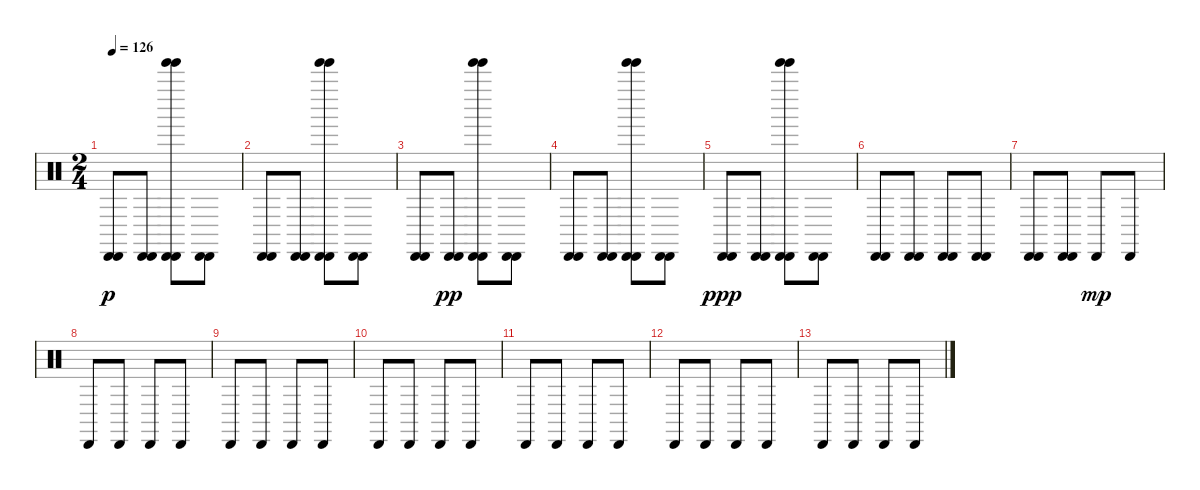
\track "" {instrument percussion}
\staff {score}
\articulation defaults
\ts (2 4)
\tempo 126
\clef neutral
\ks c
("Cabasa (hit)" "Cabasa (hit)").8{dy p} ("Cabasa (hit)" "Cabasa (hit)").8 ("Tinkle Bell (hit)" "Cabasa (hit)" "Tinkle Bell (hit)" "Cabasa (hit)").8 ("Cabasa (hit)" "Cabasa (hit)").8 |
("Cabasa (hit)" "Cabasa (hit)").8 ("Cabasa (hit)" "Cabasa (hit)").8 ("Tinkle Bell (hit)" "Cabasa (hit)" "Tinkle Bell (hit)" "Cabasa (hit)").8 ("Cabasa (hit)" "Cabasa (hit)").8 |
("Cabasa (hit)" "Cabasa (hit)").8 ("Cabasa (hit)" "Cabasa (hit)").8{dy pp} ("Tinkle Bell (hit)" "Cabasa (hit)" "Tinkle Bell (hit)" "Cabasa (hit)").8 ("Cabasa (hit)" "Cabasa (hit)").8 |
("Cabasa (hit)" "Cabasa (hit)").8 ("Cabasa (hit)" "Cabasa (hit)").8 ("Tinkle Bell (hit)" "Cabasa (hit)" "Tinkle Bell (hit)" "Cabasa (hit)").8 ("Cabasa (hit)" "Cabasa (hit)").8 |
("Cabasa (hit)" "Cabasa (hit)").8{dy ppp} ("Cabasa (hit)" "Cabasa (hit)").8 ("Tinkle Bell (hit)" "Cabasa (hit)" "Tinkle Bell (hit)" "Cabasa (hit)").8 ("Cabasa (hit)" "Cabasa (hit)").8 |
("Cabasa (hit)" "Cabasa (hit)").8 ("Cabasa (hit)" "Cabasa (hit)").8 ("Cabasa (hit)" "Cabasa (hit)").8 ("Cabasa (hit)" "Cabasa (hit)").8 |
("Cabasa (hit)" "Cabasa (hit)").8 ("Cabasa (hit)" "Cabasa (hit)").8 "Cabasa (hit)".8{dy mp} "Cabasa (hit)".8 |
"Cabasa (hit)".8 "Cabasa (hit)".8 "Cabasa (hit)".8 "Cabasa (hit)".8 |
"Cabasa (hit)".8 "Cabasa (hit)".8 "Cabasa (hit)".8 "Cabasa (hit)".8 |
"Cabasa (hit)".8 "Cabasa (hit)".8 "Cabasa (hit)".8 "Cabasa (hit)".8 |
"Cabasa (hit)".8 "Cabasa (hit)".8 "Cabasa (hit)".8 "Cabasa (hit)".8 |
"Cabasa (hit)".8 "Cabasa (hit)".8 "Cabasa (hit)".8 "Cabasa (hit)".8 |
"Cabasa (hit)".8 "Cabasa (hit)".8 "Cabasa (hit)".8 "Cabasa (hit)".8
